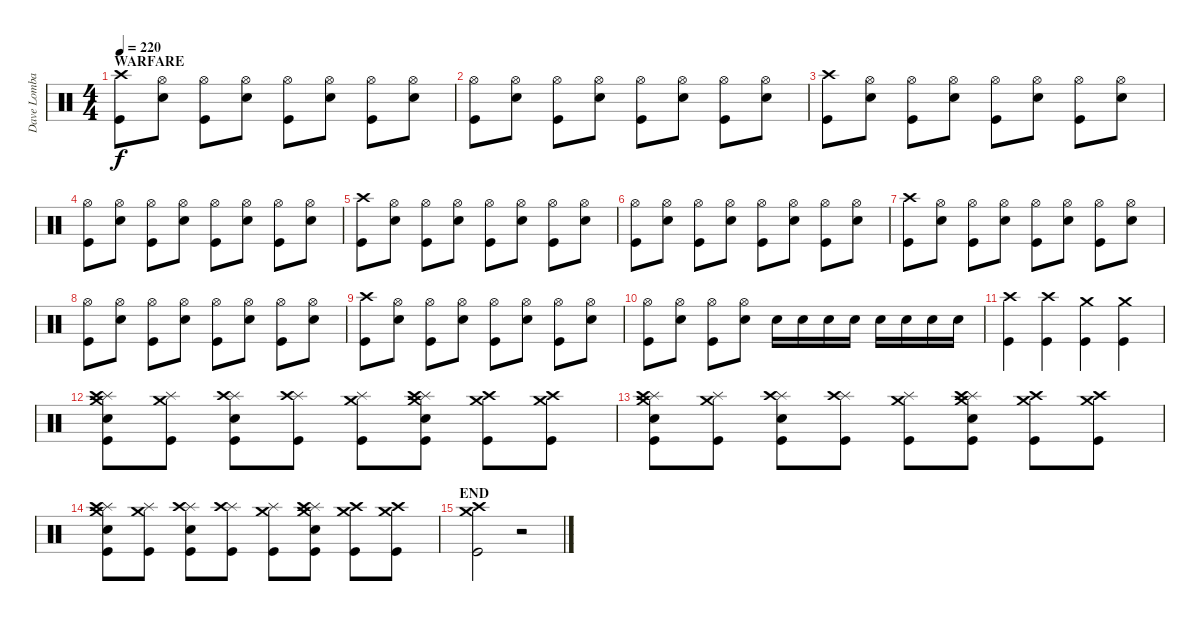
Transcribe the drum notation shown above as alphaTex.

\track ("Dave Lombardo" "Dave Lomba") {instrument percussion}
\staff {score}
\articulation defaults
\ts (4 4)
\section ("" "WARFARE")
\tempo 220
\clef neutral
\ks c
("Crash high (hit)" "Kick (hit)").8{dy f} ("Hi-Hat (open)" "Snare (hit) 2").8 ("Hi-Hat (open)" "Kick (hit)").8 ("Hi-Hat (open)" "Snare (hit) 2").8 ("Hi-Hat (open)" "Kick (hit)").8 ("Hi-Hat (open)" "Snare (hit) 2").8 ("Hi-Hat (open)" "Kick (hit)").8 ("Hi-Hat (open)" "Snare (hit) 2").8 |
("Hi-Hat (open)" "Kick (hit)").8 ("Hi-Hat (open)" "Snare (hit) 2").8 ("Hi-Hat (open)" "Kick (hit)").8 ("Hi-Hat (open)" "Snare (hit) 2").8 ("Hi-Hat (open)" "Kick (hit)").8 ("Hi-Hat (open)" "Snare (hit) 2").8 ("Hi-Hat (open)" "Kick (hit)").8 ("Hi-Hat (open)" "Snare (hit) 2").8 |
("Crash high (hit)" "Kick (hit)").8 ("Hi-Hat (open)" "Snare (hit) 2").8 ("Hi-Hat (open)" "Kick (hit)").8 ("Hi-Hat (open)" "Snare (hit) 2").8 ("Hi-Hat (open)" "Kick (hit)").8 ("Hi-Hat (open)" "Snare (hit) 2").8 ("Hi-Hat (open)" "Kick (hit)").8 ("Hi-Hat (open)" "Snare (hit) 2").8 |
("Hi-Hat (open)" "Kick (hit)").8 ("Hi-Hat (open)" "Snare (hit) 2").8 ("Hi-Hat (open)" "Kick (hit)").8 ("Hi-Hat (open)" "Snare (hit) 2").8 ("Hi-Hat (open)" "Kick (hit)").8 ("Hi-Hat (open)" "Snare (hit) 2").8 ("Hi-Hat (open)" "Kick (hit)").8 ("Hi-Hat (open)" "Snare (hit) 2").8 |
("Crash high (hit)" "Kick (hit)").8 ("Hi-Hat (open)" "Snare (hit) 2").8 ("Hi-Hat (open)" "Kick (hit)").8 ("Hi-Hat (open)" "Snare (hit) 2").8 ("Hi-Hat (open)" "Kick (hit)").8 ("Hi-Hat (open)" "Snare (hit) 2").8 ("Hi-Hat (open)" "Kick (hit)").8 ("Hi-Hat (open)" "Snare (hit) 2").8 |
("Hi-Hat (open)" "Kick (hit)").8 ("Hi-Hat (open)" "Snare (hit) 2").8 ("Hi-Hat (open)" "Kick (hit)").8 ("Hi-Hat (open)" "Snare (hit) 2").8 ("Hi-Hat (open)" "Kick (hit)").8 ("Hi-Hat (open)" "Snare (hit) 2").8 ("Hi-Hat (open)" "Kick (hit)").8 ("Hi-Hat (open)" "Snare (hit) 2").8 |
("Crash high (hit)" "Kick (hit)").8 ("Hi-Hat (open)" "Snare (hit) 2").8 ("Hi-Hat (open)" "Kick (hit)").8 ("Hi-Hat (open)" "Snare (hit) 2").8 ("Hi-Hat (open)" "Kick (hit)").8 ("Hi-Hat (open)" "Snare (hit) 2").8 ("Hi-Hat (open)" "Kick (hit)").8 ("Hi-Hat (open)" "Snare (hit) 2").8 |
("Hi-Hat (open)" "Kick (hit)").8 ("Hi-Hat (open)" "Snare (hit) 2").8 ("Hi-Hat (open)" "Kick (hit)").8 ("Hi-Hat (open)" "Snare (hit) 2").8 ("Hi-Hat (open)" "Kick (hit)").8 ("Hi-Hat (open)" "Snare (hit) 2").8 ("Hi-Hat (open)" "Kick (hit)").8 ("Hi-Hat (open)" "Snare (hit) 2").8 |
("Crash high (hit)" "Kick (hit)").8 ("Hi-Hat (open)" "Snare (hit) 2").8 ("Hi-Hat (open)" "Kick (hit)").8 ("Hi-Hat (open)" "Snare (hit) 2").8 ("Hi-Hat (open)" "Kick (hit)").8 ("Hi-Hat (open)" "Snare (hit) 2").8 ("Hi-Hat (open)" "Kick (hit)").8 ("Hi-Hat (open)" "Snare (hit) 2").8 |
("Hi-Hat (open)" "Kick (hit)").8 ("Hi-Hat (open)" "Snare (hit) 2").8 ("Hi-Hat (open)" "Kick (hit)").8 ("Hi-Hat (open)" "Snare (hit) 2").8 "Snare (hit) 2".16 "Snare (hit) 2".16 "Snare (hit) 2".16 "Snare (hit) 2".16 "Snare (hit) 2".16 "Snare (hit) 2".16 "Snare (hit) 2".16 "Snare (hit) 2".16 |
("Crash high (hit)" "Kick (hit)").4 ("Crash high (hit)" "Kick (hit)").4 ("Crash medium (hit)" "Kick (hit)").4 ("Crash medium (hit)" "Kick (hit)").4 |
("Splash (hit)" "Crash high (hit)" "Crash medium (hit)" "Snare (hit) 2" "Kick (hit)").8 ("Splash (hit)" "Crash medium (hit)" "Kick (hit)").8 ("Splash (hit)" "Snare (hit) 2" "Crash high (hit)" "Kick (hit)").8 ("Splash (hit)" "Crash high (hit)" "Kick (hit)").8 ("Splash (hit)" "Crash medium (hit)" "Kick (hit)").8 ("Splash (hit)" "Snare (hit) 2" "Crash high (hit)" "Crash medium (hit)" "Kick (hit)").8 ("Crash high (hit)" "Crash medium (hit)" "Kick (hit)").8 ("Crash medium (hit)" "Crash high (hit)" "Kick (hit)").8 |
("Splash (hit)" "Crash high (hit)" "Crash medium (hit)" "Snare (hit) 2" "Kick (hit)").8 ("Splash (hit)" "Crash medium (hit)" "Kick (hit)").8 ("Splash (hit)" "Snare (hit) 2" "Crash high (hit)" "Kick (hit)").8 ("Splash (hit)" "Crash high (hit)" "Kick (hit)").8 ("Splash (hit)" "Crash medium (hit)" "Kick (hit)").8 ("Splash (hit)" "Snare (hit) 2" "Crash high (hit)" "Crash medium (hit)" "Kick (hit)").8 ("Crash high (hit)" "Crash medium (hit)" "Kick (hit)").8 ("Crash medium (hit)" "Crash high (hit)" "Kick (hit)").8 |
("Splash (hit)" "Crash high (hit)" "Crash medium (hit)" "Snare (hit) 2" "Kick (hit)").8 ("Splash (hit)" "Crash medium (hit)" "Kick (hit)").8 ("Splash (hit)" "Snare (hit) 2" "Crash high (hit)" "Kick (hit)").8 ("Splash (hit)" "Crash high (hit)" "Kick (hit)").8 ("Splash (hit)" "Crash medium (hit)" "Kick (hit)").8 ("Splash (hit)" "Snare (hit) 2" "Crash high (hit)" "Crash medium (hit)" "Kick (hit)").8 ("Crash high (hit)" "Crash medium (hit)" "Kick (hit)").8 ("Crash medium (hit)" "Crash high (hit)" "Kick (hit)").8 |
\section ("" "END")
("Crash medium (hit)" "Crash high (hit)" "Kick (hit)").2 r.2
